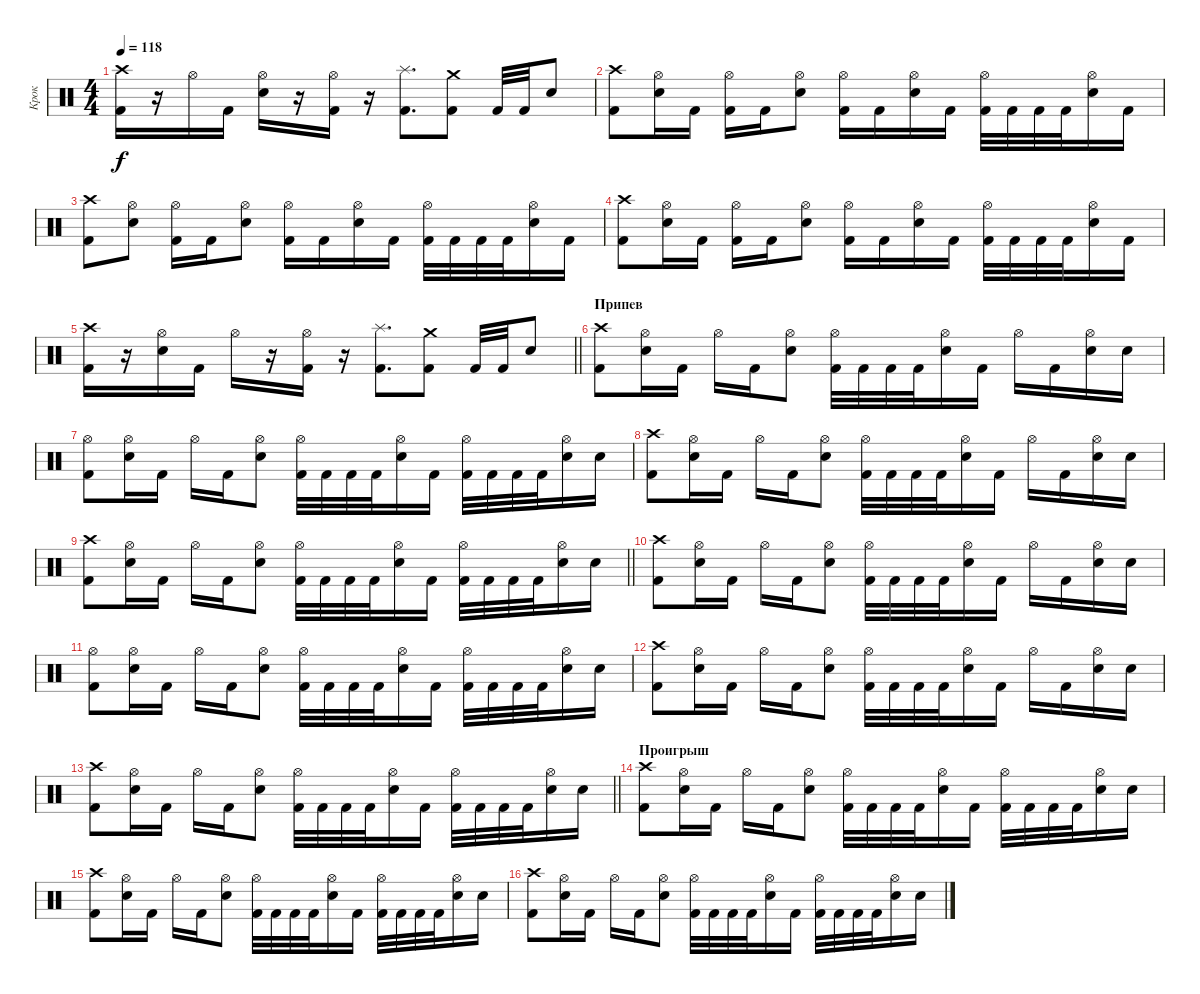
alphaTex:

\track ("Крок" "Крок") {instrument percussion}
\staff {score}
\articulation defaults
\ts (4 4)
\tempo 118
\clef neutral
\ks c
("Kick (hit) 2" "Crash high (hit)").16{dy f} r.16 "Hi-Hat (open)".16 "Kick (hit) 2".16 ("Electric Snare (hit)" "Hi-Hat (open)").16 r.16 ("Kick (hit) 2" "Hi-Hat (open)").16 r.16 ("Kick (hit) 2" "Splash (hit)").8{d} ("Kick (hit) 2" "Crash medium (hit)").8 "Kick (hit) 2".32 "Kick (hit) 2".32 "Electric Snare (hit)".8 |
("Kick (hit) 2" "Crash high (hit)").8 ("Electric Snare (hit)" "Hi-Hat (open)").16 "Kick (hit) 2".16 ("Kick (hit) 2" "Hi-Hat (open)").16 "Kick (hit) 2".16 ("Electric Snare (hit)" "Hi-Hat (open)").8 ("Kick (hit) 2" "Hi-Hat (open)").16 "Kick (hit) 2".16 ("Electric Snare (hit)" "Hi-Hat (open)").16 "Kick (hit) 2".16 ("Kick (hit) 2" "Hi-Hat (open)").32 "Kick (hit) 2".32 "Kick (hit) 2".32 "Kick (hit) 2".32 ("Electric Snare (hit)" "Hi-Hat (open)").16 "Kick (hit) 2".16 |
("Kick (hit) 2" "Crash high (hit)").8 ("Electric Snare (hit)" "Hi-Hat (open)").8 ("Kick (hit) 2" "Hi-Hat (open)").16 "Kick (hit) 2".16 ("Electric Snare (hit)" "Hi-Hat (open)").8 ("Kick (hit) 2" "Hi-Hat (open)").16 "Kick (hit) 2".16 ("Electric Snare (hit)" "Hi-Hat (open)").16 "Kick (hit) 2".16 ("Kick (hit) 2" "Hi-Hat (open)").32 "Kick (hit) 2".32 "Kick (hit) 2".32 "Kick (hit) 2".32 ("Electric Snare (hit)" "Hi-Hat (open)").16 "Kick (hit) 2".16 |
("Kick (hit) 2" "Crash high (hit)").8 ("Electric Snare (hit)" "Hi-Hat (open)").16 "Kick (hit) 2".16 ("Kick (hit) 2" "Hi-Hat (open)").16 "Kick (hit) 2".16 ("Electric Snare (hit)" "Hi-Hat (open)").8 ("Kick (hit) 2" "Hi-Hat (open)").16 "Kick (hit) 2".16 ("Electric Snare (hit)" "Hi-Hat (open)").16 "Kick (hit) 2".16 ("Kick (hit) 2" "Hi-Hat (open)").32 "Kick (hit) 2".32 "Kick (hit) 2".32 "Kick (hit) 2".32 ("Electric Snare (hit)" "Hi-Hat (open)").16 "Kick (hit) 2".16 |
\barLineRight lightlight
("Kick (hit) 2" "Crash high (hit)").16 r.16 ("Electric Snare (hit)" "Hi-Hat (open)").16 "Kick (hit) 2".16 "Hi-Hat (open)".16 r.16 ("Kick (hit) 2" "Hi-Hat (open)").16 r.16 ("Kick (hit) 2" "Splash (hit)").8{d} ("Kick (hit) 2" "Crash medium (hit)").8 "Kick (hit) 2".32 "Kick (hit) 2".32 "Electric Snare (hit)".8 |
\section ("" "Припев")
("Kick (hit) 2" "Crash high (hit)").8 ("Electric Snare (hit)" "Hi-Hat (open)").16 "Kick (hit) 2".16 "Hi-Hat (open)".16 "Kick (hit) 2".16 ("Electric Snare (hit)" "Hi-Hat (open)").8 ("Kick (hit) 2" "Hi-Hat (open)").32 "Kick (hit) 2".32 "Kick (hit) 2".32 "Kick (hit) 2".32 ("Electric Snare (hit)" "Hi-Hat (open)").16 "Kick (hit) 2".16 "Hi-Hat (open)".16 "Kick (hit) 2".16 ("Electric Snare (hit)" "Hi-Hat (open)").16 "Electric Snare (hit)".16 |
("Kick (hit) 2" "Hi-Hat (open)").8 ("Electric Snare (hit)" "Hi-Hat (open)").16 "Kick (hit) 2".16 "Hi-Hat (open)".16 "Kick (hit) 2".16 ("Electric Snare (hit)" "Hi-Hat (open)").8 ("Kick (hit) 2" "Hi-Hat (open)").32 "Kick (hit) 2".32 "Kick (hit) 2".32 "Kick (hit) 2".32 ("Electric Snare (hit)" "Hi-Hat (open)").16 "Kick (hit) 2".16 ("Kick (hit) 2" "Hi-Hat (open)").32 "Kick (hit) 2".32 "Kick (hit) 2".32 "Kick (hit) 2".32 ("Electric Snare (hit)" "Hi-Hat (open)").16 "Electric Snare (hit)".16 |
("Kick (hit) 2" "Crash high (hit)").8 ("Electric Snare (hit)" "Hi-Hat (open)").16 "Kick (hit) 2".16 "Hi-Hat (open)".16 "Kick (hit) 2".16 ("Electric Snare (hit)" "Hi-Hat (open)").8 ("Kick (hit) 2" "Hi-Hat (open)").32 "Kick (hit) 2".32 "Kick (hit) 2".32 "Kick (hit) 2".32 ("Electric Snare (hit)" "Hi-Hat (open)").16 "Kick (hit) 2".16 "Hi-Hat (open)".16 "Kick (hit) 2".16 ("Electric Snare (hit)" "Hi-Hat (open)").16 "Electric Snare (hit)".16 |
\barLineRight lightlight
("Kick (hit) 2" "Crash high (hit)").8 ("Electric Snare (hit)" "Hi-Hat (open)").16 "Kick (hit) 2".16 "Hi-Hat (open)".16 "Kick (hit) 2".16 ("Electric Snare (hit)" "Hi-Hat (open)").8 ("Kick (hit) 2" "Hi-Hat (open)").32 "Kick (hit) 2".32 "Kick (hit) 2".32 "Kick (hit) 2".32 ("Electric Snare (hit)" "Hi-Hat (open)").16 "Kick (hit) 2".16 ("Kick (hit) 2" "Hi-Hat (open)").32 "Kick (hit) 2".32 "Kick (hit) 2".32 "Kick (hit) 2".32 ("Electric Snare (hit)" "Hi-Hat (open)").16 "Electric Snare (hit)".16 |
("Kick (hit) 2" "Crash high (hit)").8 ("Electric Snare (hit)" "Hi-Hat (open)").16 "Kick (hit) 2".16 "Hi-Hat (open)".16 "Kick (hit) 2".16 ("Electric Snare (hit)" "Hi-Hat (open)").8 ("Kick (hit) 2" "Hi-Hat (open)").32 "Kick (hit) 2".32 "Kick (hit) 2".32 "Kick (hit) 2".32 ("Electric Snare (hit)" "Hi-Hat (open)").16 "Kick (hit) 2".16 "Hi-Hat (open)".16 "Kick (hit) 2".16 ("Electric Snare (hit)" "Hi-Hat (open)").16 "Electric Snare (hit)".16 |
("Kick (hit) 2" "Hi-Hat (open)").8 ("Electric Snare (hit)" "Hi-Hat (open)").16 "Kick (hit) 2".16 "Hi-Hat (open)".16 "Kick (hit) 2".16 ("Electric Snare (hit)" "Hi-Hat (open)").8 ("Kick (hit) 2" "Hi-Hat (open)").32 "Kick (hit) 2".32 "Kick (hit) 2".32 "Kick (hit) 2".32 ("Electric Snare (hit)" "Hi-Hat (open)").16 "Kick (hit) 2".16 ("Kick (hit) 2" "Hi-Hat (open)").32 "Kick (hit) 2".32 "Kick (hit) 2".32 "Kick (hit) 2".32 ("Electric Snare (hit)" "Hi-Hat (open)").16 "Electric Snare (hit)".16 |
("Kick (hit) 2" "Crash high (hit)").8 ("Electric Snare (hit)" "Hi-Hat (open)").16 "Kick (hit) 2".16 "Hi-Hat (open)".16 "Kick (hit) 2".16 ("Electric Snare (hit)" "Hi-Hat (open)").8 ("Kick (hit) 2" "Hi-Hat (open)").32 "Kick (hit) 2".32 "Kick (hit) 2".32 "Kick (hit) 2".32 ("Electric Snare (hit)" "Hi-Hat (open)").16 "Kick (hit) 2".16 "Hi-Hat (open)".16 "Kick (hit) 2".16 ("Electric Snare (hit)" "Hi-Hat (open)").16 "Electric Snare (hit)".16 |
\barLineRight lightlight
("Kick (hit) 2" "Crash high (hit)").8 ("Electric Snare (hit)" "Hi-Hat (open)").16 "Kick (hit) 2".16 "Hi-Hat (open)".16 "Kick (hit) 2".16 ("Electric Snare (hit)" "Hi-Hat (open)").8 ("Kick (hit) 2" "Hi-Hat (open)").32 "Kick (hit) 2".32 "Kick (hit) 2".32 "Kick (hit) 2".32 ("Electric Snare (hit)" "Hi-Hat (open)").16 "Kick (hit) 2".16 ("Kick (hit) 2" "Hi-Hat (open)").32 "Kick (hit) 2".32 "Kick (hit) 2".32 "Kick (hit) 2".32 ("Electric Snare (hit)" "Hi-Hat (open)").16 "Electric Snare (hit)".16 |
\section ("" "Проигрыш")
("Kick (hit) 2" "Crash high (hit)").8 ("Electric Snare (hit)" "Hi-Hat (open)").16 "Kick (hit) 2".16 "Hi-Hat (open)".16 "Kick (hit) 2".16 ("Electric Snare (hit)" "Hi-Hat (open)").8 ("Kick (hit) 2" "Hi-Hat (open)").32 "Kick (hit) 2".32 "Kick (hit) 2".32 "Kick (hit) 2".32 ("Electric Snare (hit)" "Hi-Hat (open)").16 "Kick (hit) 2".16 ("Kick (hit) 2" "Hi-Hat (open)").32 "Kick (hit) 2".32 "Kick (hit) 2".32 "Kick (hit) 2".32 ("Electric Snare (hit)" "Hi-Hat (open)").16 "Electric Snare (hit)".16 |
("Kick (hit) 2" "Crash high (hit)").8 ("Electric Snare (hit)" "Hi-Hat (open)").16 "Kick (hit) 2".16 "Hi-Hat (open)".16 "Kick (hit) 2".16 ("Electric Snare (hit)" "Hi-Hat (open)").8 ("Kick (hit) 2" "Hi-Hat (open)").32 "Kick (hit) 2".32 "Kick (hit) 2".32 "Kick (hit) 2".32 ("Electric Snare (hit)" "Hi-Hat (open)").16 "Kick (hit) 2".16 ("Kick (hit) 2" "Hi-Hat (open)").32 "Kick (hit) 2".32 "Kick (hit) 2".32 "Kick (hit) 2".32 ("Electric Snare (hit)" "Hi-Hat (open)").16 "Electric Snare (hit)".16 |
("Kick (hit) 2" "Crash high (hit)").8 ("Electric Snare (hit)" "Hi-Hat (open)").16 "Kick (hit) 2".16 "Hi-Hat (open)".16 "Kick (hit) 2".16 ("Electric Snare (hit)" "Hi-Hat (open)").8 ("Kick (hit) 2" "Hi-Hat (open)").32 "Kick (hit) 2".32 "Kick (hit) 2".32 "Kick (hit) 2".32 ("Electric Snare (hit)" "Hi-Hat (open)").16 "Kick (hit) 2".16 ("Kick (hit) 2" "Hi-Hat (open)").32 "Kick (hit) 2".32 "Kick (hit) 2".32 "Kick (hit) 2".32 ("Electric Snare (hit)" "Hi-Hat (open)").16 "Electric Snare (hit)".16
